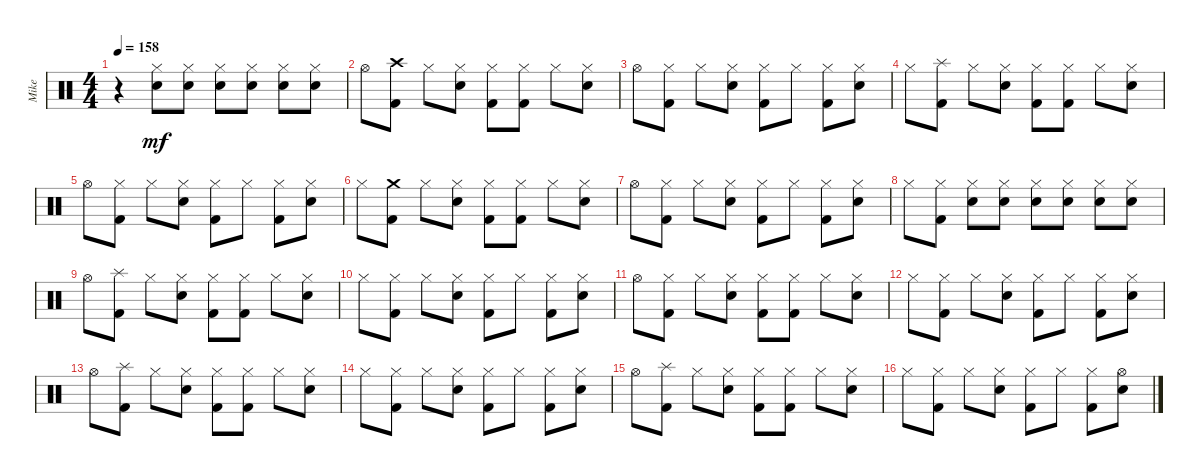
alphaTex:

\track ("Mike" "Mike") {instrument percussion}
\staff {score}
\articulation defaults
\ts (4 4)
\tempo 158
\clef neutral
\ks c
r.4{dy mf} ("Hi-Hat (closed)" "Electric Snare (hit)").8 ("Hi-Hat (closed)" "Electric Snare (hit)").8 ("Hi-Hat (closed)" "Electric Snare (hit)").8 ("Hi-Hat (closed)" "Electric Snare (hit)").8 ("Hi-Hat (closed)" "Electric Snare (hit)").8 ("Hi-Hat (closed)" "Electric Snare (hit)").8 |
"Hi-Hat (open)".8 ("Crash high (hit)" "Kick (hit) 2").8 "Hi-Hat (closed)".8 ("Hi-Hat (closed)" "Electric Snare (hit)").8 ("Hi-Hat (closed)" "Kick (hit) 2").8 ("Hi-Hat (closed)" "Kick (hit) 2").8 "Hi-Hat (closed)".8 ("Hi-Hat (closed)" "Electric Snare (hit)").8 |
"Hi-Hat (open)".8 ("Hi-Hat (closed)" "Kick (hit) 2").8 "Hi-Hat (closed)".8 ("Hi-Hat (closed)" "Electric Snare (hit)").8 ("Hi-Hat (closed)" "Kick (hit) 2").8 "Hi-Hat (closed)".8 ("Hi-Hat (closed)" "Kick (hit) 2").8 ("Hi-Hat (closed)" "Electric Snare (hit)").8 |
"Hi-Hat (closed)".8 ("Splash (hit)" "Kick (hit) 2").8 "Hi-Hat (closed)".8 ("Hi-Hat (closed)" "Electric Snare (hit)").8 ("Hi-Hat (closed)" "Kick (hit) 2").8 ("Hi-Hat (closed)" "Kick (hit) 2").8 "Hi-Hat (closed)".8 ("Hi-Hat (closed)" "Electric Snare (hit)").8 |
"Hi-Hat (open)".8 ("Hi-Hat (closed)" "Kick (hit) 2").8 "Hi-Hat (closed)".8 ("Hi-Hat (closed)" "Electric Snare (hit)").8 ("Hi-Hat (closed)" "Kick (hit) 2").8 "Hi-Hat (closed)".8 ("Hi-Hat (closed)" "Kick (hit) 2").8 ("Hi-Hat (closed)" "Electric Snare (hit)").8 |
"Hi-Hat (closed)".8 ("Crash medium (hit)" "Kick (hit) 2").8 "Hi-Hat (closed)".8 ("Hi-Hat (closed)" "Electric Snare (hit)").8 ("Hi-Hat (closed)" "Kick (hit) 2").8 ("Hi-Hat (closed)" "Kick (hit) 2").8 "Hi-Hat (closed)".8 ("Hi-Hat (closed)" "Electric Snare (hit)").8 |
"Hi-Hat (open)".8 ("Hi-Hat (closed)" "Kick (hit) 2").8 "Hi-Hat (closed)".8 ("Hi-Hat (closed)" "Electric Snare (hit)").8 ("Hi-Hat (closed)" "Kick (hit) 2").8 "Hi-Hat (closed)".8 ("Hi-Hat (closed)" "Kick (hit) 2").8 ("Hi-Hat (closed)" "Electric Snare (hit)").8 |
"Hi-Hat (closed)".8 ("Hi-Hat (closed)" "Kick (hit) 2").8 ("Hi-Hat (closed)" "Electric Snare (hit)").8 ("Hi-Hat (closed)" "Electric Snare (hit)").8 ("Hi-Hat (closed)" "Electric Snare (hit)").8 ("Hi-Hat (closed)" "Electric Snare (hit)").8 ("Hi-Hat (closed)" "Electric Snare (hit)").8 ("Hi-Hat (closed)" "Electric Snare (hit)").8 |
"Hi-Hat (open)".8 ("Splash (hit)" "Kick (hit) 2").8 "Hi-Hat (closed)".8 ("Hi-Hat (closed)" "Electric Snare (hit)").8 ("Hi-Hat (closed)" "Kick (hit) 2").8 ("Hi-Hat (closed)" "Kick (hit) 2").8 "Hi-Hat (closed)".8 ("Hi-Hat (closed)" "Electric Snare (hit)").8 |
"Hi-Hat (closed)".8 ("Hi-Hat (closed)" "Kick (hit) 2").8 "Hi-Hat (closed)".8 ("Hi-Hat (closed)" "Electric Snare (hit)").8 ("Hi-Hat (closed)" "Kick (hit) 2").8 "Hi-Hat (closed)".8 ("Hi-Hat (closed)" "Kick (hit) 2").8 ("Hi-Hat (closed)" "Electric Snare (hit)").8 |
"Hi-Hat (open)".8 ("Hi-Hat (closed)" "Kick (hit) 2").8 "Hi-Hat (closed)".8 ("Hi-Hat (closed)" "Electric Snare (hit)").8 ("Hi-Hat (closed)" "Kick (hit) 2").8 ("Hi-Hat (closed)" "Kick (hit) 2").8 "Hi-Hat (closed)".8 ("Hi-Hat (closed)" "Electric Snare (hit)").8 |
"Hi-Hat (closed)".8 ("Hi-Hat (closed)" "Kick (hit) 2").8 "Hi-Hat (closed)".8 ("Hi-Hat (closed)" "Electric Snare (hit)").8 ("Hi-Hat (closed)" "Kick (hit) 2").8 "Hi-Hat (closed)".8 ("Hi-Hat (closed)" "Kick (hit) 2").8 ("Hi-Hat (closed)" "Electric Snare (hit)").8 |
"Hi-Hat (open)".8 ("Splash (hit)" "Kick (hit) 2").8 "Hi-Hat (closed)".8 ("Hi-Hat (closed)" "Electric Snare (hit)").8 ("Hi-Hat (closed)" "Kick (hit) 2").8 ("Hi-Hat (closed)" "Kick (hit) 2").8 "Hi-Hat (closed)".8 ("Hi-Hat (closed)" "Electric Snare (hit)").8 |
"Hi-Hat (closed)".8 ("Hi-Hat (closed)" "Kick (hit) 2").8 "Hi-Hat (closed)".8 ("Hi-Hat (closed)" "Electric Snare (hit)").8 ("Hi-Hat (closed)" "Kick (hit) 2").8 "Hi-Hat (closed)".8 ("Hi-Hat (closed)" "Kick (hit) 2").8 ("Hi-Hat (closed)" "Electric Snare (hit)").8 |
"Hi-Hat (open)".8 ("Splash (hit)" "Kick (hit) 2").8 "Hi-Hat (closed)".8 ("Hi-Hat (closed)" "Electric Snare (hit)").8 ("Hi-Hat (closed)" "Kick (hit) 2").8 ("Hi-Hat (closed)" "Kick (hit) 2").8 "Hi-Hat (closed)".8 ("Hi-Hat (closed)" "Electric Snare (hit)").8 |
"Hi-Hat (closed)".8 ("Hi-Hat (closed)" "Kick (hit) 2").8 "Hi-Hat (closed)".8 ("Hi-Hat (closed)" "Electric Snare (hit)").8 ("Hi-Hat (closed)" "Kick (hit) 2").8 "Hi-Hat (closed)".8 ("Hi-Hat (closed)" "Kick (hit) 2").8 ("Hi-Hat (open)" "Electric Snare (hit)").8
